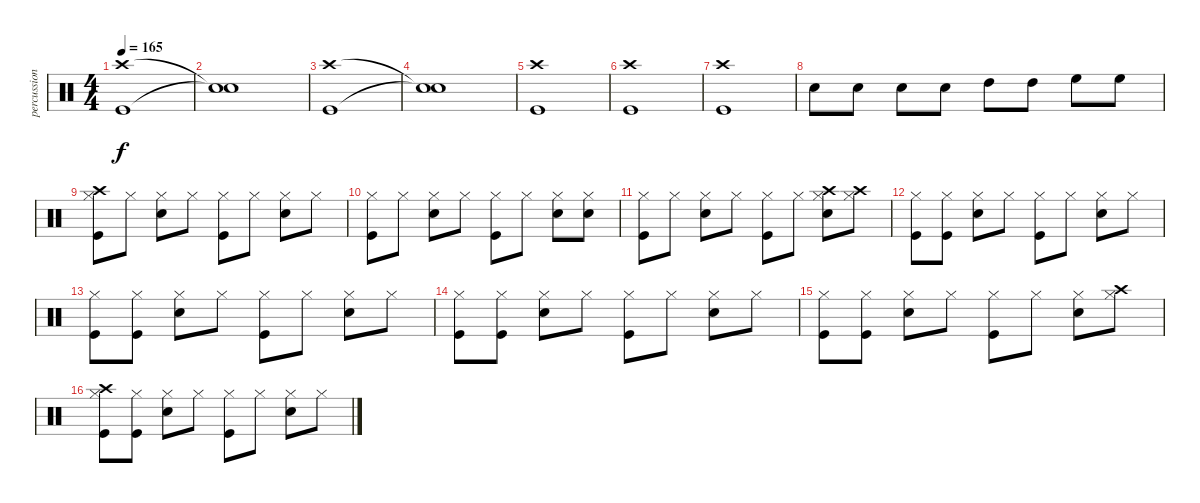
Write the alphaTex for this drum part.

\track ("percussion" "percussion") {instrument percussion}
\staff {score}
\articulation defaults
\ts (4 4)
\tempo 165
\clef neutral
\ks c
("Crash high (hit)" "Kick (hit)").1{dy f} |
("Snare (hit)"{t} "Snare (hit)"{t}).1 |
("Kick (hit)" "Crash high (hit)").1 |
("Snare (hit)"{t} "Snare (hit)"{t}).1 |
("Crash high (hit)" "Kick (hit)").1 |
("Kick (hit)" "Crash high (hit)").1 |
("Crash high (hit)" "Kick (hit)").1 |
"Electric Snare (hit)".8 "Electric Snare (hit)".8 "Electric Snare (hit)".8 "Electric Snare (hit)".8 "High Tom (hit)".8 "High Tom (hit)".8 "High Floor Tom (hit)".8 "High Floor Tom (hit)".8 |
("Crash high (hit)" "Kick (hit)" "Hi-Hat (closed)").8 "Hi-Hat (closed)".8 ("Electric Snare (hit)" "Hi-Hat (closed)").8 "Hi-Hat (closed)".8 ("Kick (hit)" "Hi-Hat (closed)").8 "Hi-Hat (closed)".8 ("Electric Snare (hit)" "Hi-Hat (closed)").8 "Hi-Hat (closed)".8 |
("Kick (hit)" "Hi-Hat (closed)").8 "Hi-Hat (closed)".8 ("Electric Snare (hit)" "Hi-Hat (closed)").8 "Hi-Hat (closed)".8 ("Kick (hit)" "Hi-Hat (closed)").8 "Hi-Hat (closed)".8 ("Electric Snare (hit)" "Hi-Hat (closed)").8 ("Snare (hit)" "Hi-Hat (closed)").8 |
("Kick (hit)" "Hi-Hat (closed)").8 "Hi-Hat (closed)".8 ("Electric Snare (hit)" "Hi-Hat (closed)").8 "Hi-Hat (closed)".8 ("Kick (hit)" "Hi-Hat (closed)").8 "Hi-Hat (closed)".8 ("Crash high (hit)" "Electric Snare (hit)" "Hi-Hat (closed)").8 ("Crash high (hit)" "Hi-Hat (closed)").8 |
("Kick (hit)" "Hi-Hat (closed)").8 ("Kick (hit)" "Hi-Hat (closed)").8 ("Electric Snare (hit)" "Hi-Hat (closed)").8 "Hi-Hat (closed)".8 ("Kick (hit)" "Hi-Hat (closed)").8 "Hi-Hat (closed)".8 ("Electric Snare (hit)" "Hi-Hat (closed)").8 "Hi-Hat (closed)".8 |
("Kick (hit)" "Hi-Hat (closed)").8 ("Kick (hit)" "Hi-Hat (closed)").8 ("Electric Snare (hit)" "Hi-Hat (closed)").8 "Hi-Hat (closed)".8 ("Kick (hit)" "Hi-Hat (closed)").8 "Hi-Hat (closed)".8 ("Electric Snare (hit)" "Hi-Hat (closed)").8 "Hi-Hat (closed)".8 |
("Kick (hit)" "Hi-Hat (closed)").8 ("Kick (hit)" "Hi-Hat (closed)").8 ("Electric Snare (hit)" "Hi-Hat (closed)").8 "Hi-Hat (closed)".8 ("Kick (hit)" "Hi-Hat (closed)").8 "Hi-Hat (closed)".8 ("Electric Snare (hit)" "Hi-Hat (closed)").8 "Hi-Hat (closed)".8 |
("Kick (hit)" "Hi-Hat (closed)").8 ("Kick (hit)" "Hi-Hat (closed)").8 ("Electric Snare (hit)" "Hi-Hat (closed)").8 "Hi-Hat (closed)".8 ("Kick (hit)" "Hi-Hat (closed)").8 "Hi-Hat (closed)".8 ("Electric Snare (hit)" "Hi-Hat (closed)").8 ("Crash high (hit)" "Hi-Hat (closed)").8 |
("Crash high (hit)" "Kick (hit)" "Hi-Hat (closed)").8 ("Kick (hit)" "Hi-Hat (closed)").8 ("Electric Snare (hit)" "Hi-Hat (closed)").8 "Hi-Hat (closed)".8 ("Kick (hit)" "Hi-Hat (closed)").8 "Hi-Hat (closed)".8 ("Electric Snare (hit)" "Hi-Hat (closed)").8 "Hi-Hat (closed)".8
